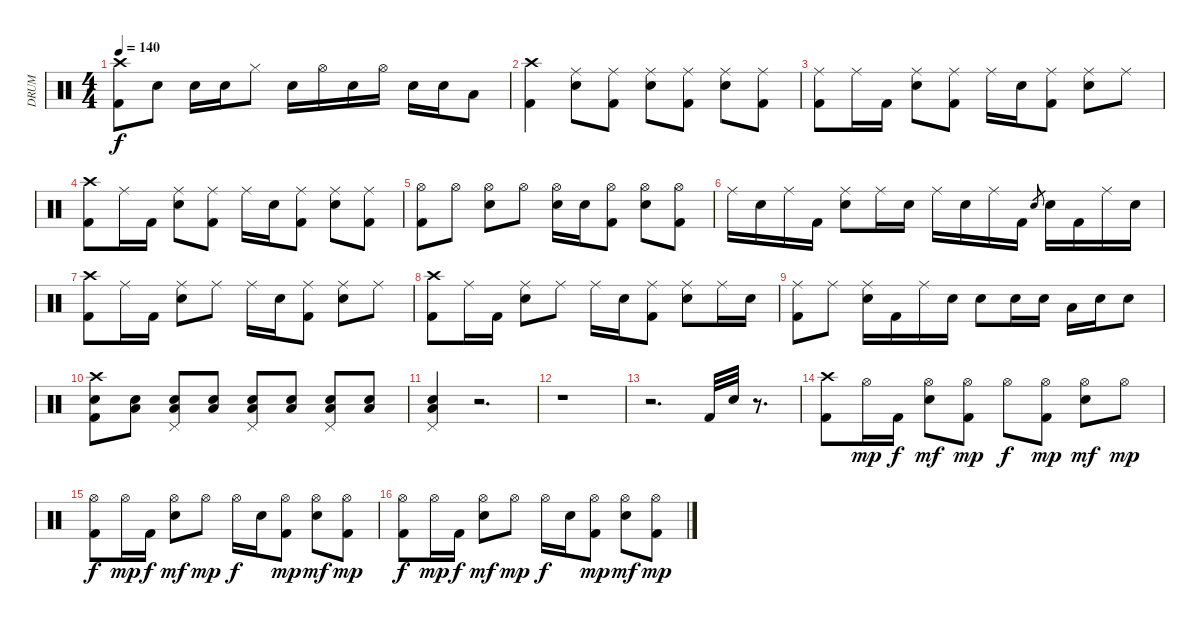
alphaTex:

\track ("DRUM" "DRUM") {instrument percussion}
\staff {score}
\articulation defaults
\ts (4 4)
\tempo 140
\clef neutral
\ks c
("Crash high (hit)" "Kick (hit) 2").8{dy f} "Electric Snare (hit)".8 "Electric Snare (hit)".16 "Electric Snare (hit)".16 "Hi-Hat (closed)".8 "Electric Snare (hit)".16 "Hi-Hat (open)".16 "Electric Snare (hit)".16 "Hi-Hat (open)".16 "Electric Snare (hit)".16 "Electric Snare (hit)".16 "Low Floor Tom (hit)".8 |
("Crash high (hit)" "Kick (hit) 2").4 ("Ride (middle)" "Electric Snare (hit)").8 ("Ride (middle)" "Kick (hit) 2").8 ("Ride (middle)" "Electric Snare (hit)").8 ("Ride (middle)" "Kick (hit) 2").8 ("Ride (middle)" "Electric Snare (hit)").8 ("Ride (middle)" "Kick (hit) 2").8 |
("Ride (middle)" "Kick (hit) 2").8 "Ride (middle)".16 "Kick (hit) 2".16 ("Ride (middle)" "Electric Snare (hit)").8 ("Ride (middle)" "Kick (hit) 2").8 "Ride (middle)".16 "Electric Snare (hit)".16 ("Ride (middle)" "Kick (hit) 2").8 ("Ride (middle)" "Electric Snare (hit)").8 "Ride (middle)".8 |
("Crash high (hit)" "Kick (hit) 2").8 "Ride (middle)".16 "Kick (hit) 2".16 ("Ride (middle)" "Electric Snare (hit)").8 ("Ride (middle)" "Kick (hit) 2").8 "Ride (middle)".16 "Electric Snare (hit)".16 ("Ride (middle)" "Kick (hit) 2").8 ("Ride (middle)" "Electric Snare (hit)").8 ("Ride (middle)" "Kick (hit) 2").8 |
("Hi-Hat (open)" "Kick (hit) 2").8 "Hi-Hat (open)".8 ("Hi-Hat (open)" "Electric Snare (hit)").8 "Hi-Hat (open)".8 ("Hi-Hat (open)" "Electric Snare (hit)").16 "Electric Snare (hit)".16 ("Hi-Hat (open)" "Kick (hit) 2").8 ("Hi-Hat (open)" "Electric Snare (hit)").8 ("Hi-Hat (open)" "Kick (hit) 2").8 |
"Ride (middle)".16 "Electric Snare (hit)".16 "Ride (middle)".16 "Kick (hit) 2".16 ("Ride (middle)" "Electric Snare (hit)").8 "Ride (middle)".16 "Electric Snare (hit)".16 "Ride (middle)".16 "Electric Snare (hit)".16 "Ride (middle)".16 "Kick (hit) 2".16 "Electric Snare (hit)".8{gr} "Electric Snare (hit)".16 "Kick (hit) 2".16 "Ride (middle)".16 "Electric Snare (hit)".16 |
("Crash high (hit)" "Kick (hit) 2").8 "Ride (middle)".16 "Kick (hit) 2".16 ("Ride (middle)" "Electric Snare (hit)").8 "Ride (middle)".8 "Ride (middle)".16 "Electric Snare (hit)".16 ("Ride (middle)" "Kick (hit) 2").8 ("Ride (middle)" "Electric Snare (hit)").8 "Ride (middle)".8 |
("Crash high (hit)" "Kick (hit) 2").8 "Ride (middle)".16 "Kick (hit) 2".16 ("Ride (middle)" "Electric Snare (hit)").8 "Ride (middle)".8 "Ride (middle)".16 "Electric Snare (hit)".16 ("Ride (middle)" "Kick (hit) 2").8 ("Ride (middle)" "Electric Snare (hit)").8 "Ride (middle)".16 "Electric Snare (hit)".16 |
("Ride (middle)" "Kick (hit) 2").8 "Ride (middle)".8 ("Ride (middle)" "Electric Snare (hit)").16 "Kick (hit) 2".16 "Ride (middle)".16 "Electric Snare (hit)".16 "Electric Snare (hit)".8 "Electric Snare (hit)".16 "Electric Snare (hit)".16 "Low Tom (hit)".16 "Electric Snare (hit)".16 "Electric Snare (hit)".8 |
("Crash high (hit)" "Electric Snare (hit)" "Kick (hit) 2").8 ("Electric Snare (hit)" "Low Floor Tom (hit)").8 ("Pedal Hi-Hat (hit)" "Electric Snare (hit)" "Low Floor Tom (hit)").8 ("Electric Snare (hit)" "Low Floor Tom (hit)").8 ("Pedal Hi-Hat (hit)" "Electric Snare (hit)" "Low Floor Tom (hit)").8 ("Electric Snare (hit)" "Low Floor Tom (hit)").8 ("Pedal Hi-Hat (hit)" "Electric Snare (hit)" "Low Floor Tom (hit)").8 ("Electric Snare (hit)" "Low Floor Tom (hit)").8 |
("Pedal Hi-Hat (hit)" "Electric Snare (hit)" "Low Floor Tom (hit)").4 r.2{d} |
r.1 |
r.2{d} "Kick (hit) 2".32 "Electric Snare (hit)".32 r.8{d} |
("Crash high (hit)" "Kick (hit) 2").8 "Hi-Hat (open)".16{dy mp} "Kick (hit) 2".16{dy f} ("Hi-Hat (open)" "Electric Snare (hit)").8{dy mf} ("Hi-Hat (open)" "Kick (hit) 2").8{dy mp} "Hi-Hat (open)".8{dy f} ("Hi-Hat (open)" "Kick (hit) 2").8{dy mp} ("Hi-Hat (open)" "Electric Snare (hit)").8{dy mf} "Hi-Hat (open)".8{dy mp} |
("Hi-Hat (open)" "Kick (hit) 2").8{dy f} "Hi-Hat (open)".16{dy mp} "Kick (hit) 2".16{dy f} ("Hi-Hat (open)" "Electric Snare (hit)").8{dy mf} "Hi-Hat (open)".8{dy mp} "Hi-Hat (open)".16{dy f} "Electric Snare (hit)".16 ("Hi-Hat (open)" "Kick (hit) 2").8{dy mp} ("Hi-Hat (open)" "Electric Snare (hit)").8{dy mf} ("Hi-Hat (open)" "Kick (hit) 2").8{dy mp} |
("Hi-Hat (open)" "Kick (hit) 2").8{dy f} "Hi-Hat (open)".16{dy mp} "Kick (hit) 2".16{dy f} ("Hi-Hat (open)" "Electric Snare (hit)").8{dy mf} "Hi-Hat (open)".8{dy mp} "Hi-Hat (open)".16{dy f} "Electric Snare (hit)".16 ("Hi-Hat (open)" "Kick (hit) 2").8{dy mp} ("Hi-Hat (open)" "Electric Snare (hit)").8{dy mf} ("Hi-Hat (open)" "Kick (hit) 2").8{dy mp}
